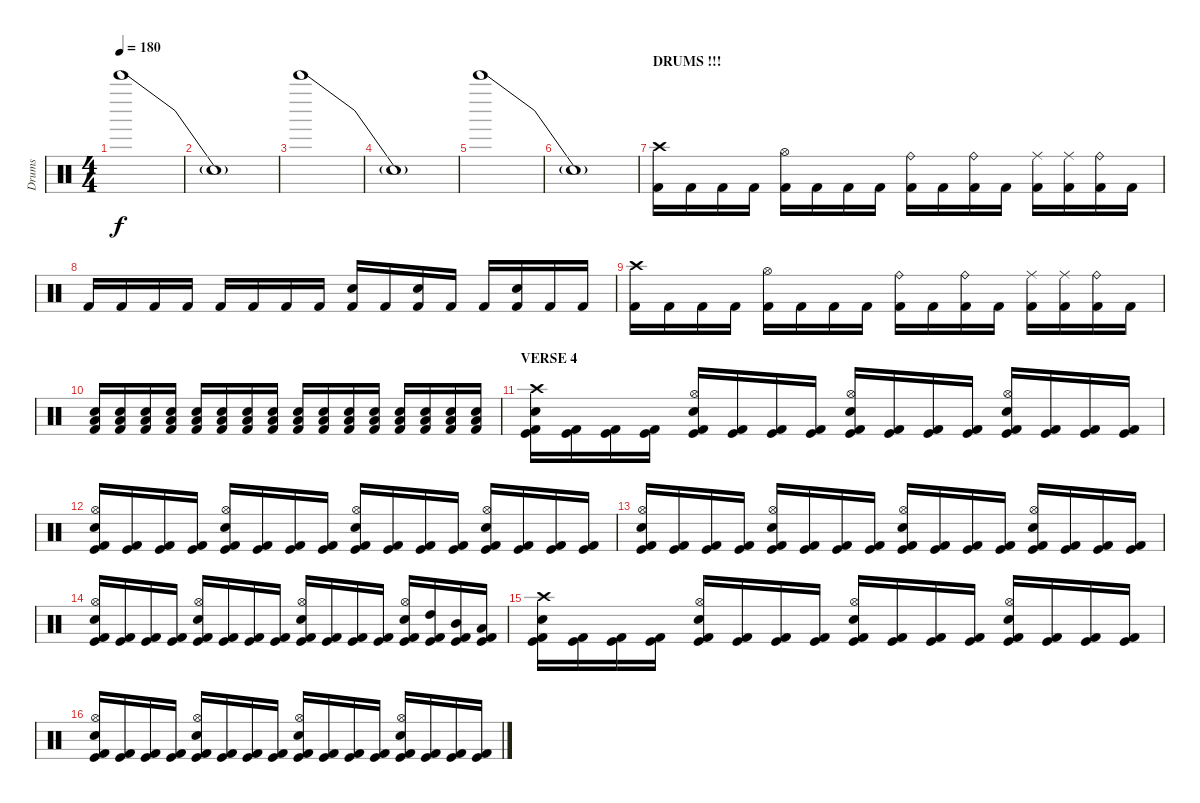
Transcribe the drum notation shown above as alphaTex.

\track ("Drums" "Drums") {instrument percussion}
\staff {score}
\articulation defaults
\ts (4 4)
\tempo 180
\clef neutral
\ks c "Bell Tree (hit)"{be (bend 0 0 60 12)}.1{dy f}
|
"Snare (hit)"{t}.1 |
"Bell Tree (hit)"{be (bend 0 0 60 12)}.1 |
"Snare (hit)"{t}.1 |
"Bell Tree (hit)"{be (bend 0 0 60 12)}.1 |
"Snare (hit)"{t}.1 |
\section ("" "DRUMS !!!")
("Crash high (hit)" "Kick (hit) 2").16 "Kick (hit) 2".16 "Kick (hit) 2".16 "Kick (hit) 2".16 ("Hi-Hat (open)" "Kick (hit) 2").16 "Kick (hit) 2".16 "Kick (hit) 2".16 "Kick (hit) 2".16 ("Ride (bell)" "Kick (hit) 2").16 "Kick (hit) 2".16 ("Ride (bell)" "Kick (hit) 2").16 "Kick (hit) 2".16 ("Ride (middle)" "Kick (hit) 2").16 ("Ride (middle)" "Kick (hit) 2").16 ("Ride (bell)" "Kick (hit) 2").16 "Kick (hit) 2".16 |
"Kick (hit) 2".16 "Kick (hit) 2".16 "Kick (hit) 2".16 "Kick (hit) 2".16 "Kick (hit) 2".16 "Kick (hit) 2".16 "Kick (hit) 2".16 "Kick (hit) 2".16 ("Electric Snare (hit)" "Kick (hit) 2").16 "Kick (hit) 2".16 ("Electric Snare (hit)" "Kick (hit) 2").16 "Kick (hit) 2".16 "Kick (hit) 2".16 ("Electric Snare (hit)" "Kick (hit) 2").16 "Kick (hit) 2".16 "Kick (hit) 2".16 |
("Crash high (hit)" "Kick (hit) 2").16 "Kick (hit) 2".16 "Kick (hit) 2".16 "Kick (hit) 2".16 ("Hi-Hat (open)" "Kick (hit) 2").16 "Kick (hit) 2".16 "Kick (hit) 2".16 "Kick (hit) 2".16 ("Ride (bell)" "Kick (hit) 2").16 "Kick (hit) 2".16 ("Ride (bell)" "Kick (hit) 2").16 "Kick (hit) 2".16 ("Ride (middle)" "Kick (hit) 2").16 ("Ride (middle)" "Kick (hit) 2").16 ("Ride (bell)" "Kick (hit) 2").16 "Kick (hit) 2".16 |
("Low Floor Tom (hit)" "Electric Snare (hit)" "Kick (hit) 2").16 ("Low Floor Tom (hit)" "Electric Snare (hit)" "Kick (hit) 2").16 ("Low Floor Tom (hit)" "Electric Snare (hit)" "Kick (hit) 2").16 ("Low Floor Tom (hit)" "Electric Snare (hit)" "Kick (hit) 2").16 ("Low Floor Tom (hit)" "Electric Snare (hit)" "Kick (hit) 2").16 ("Low Floor Tom (hit)" "Electric Snare (hit)" "Kick (hit) 2").16 ("Low Floor Tom (hit)" "Electric Snare (hit)" "Kick (hit) 2").16 ("Low Floor Tom (hit)" "Electric Snare (hit)" "Kick (hit) 2").16 ("Low Floor Tom (hit)" "Electric Snare (hit)" "Kick (hit) 2").16 ("Low Floor Tom (hit)" "Electric Snare (hit)" "Kick (hit) 2").16 ("Low Floor Tom (hit)" "Electric Snare (hit)" "Kick (hit) 2").16 ("Low Floor Tom (hit)" "Electric Snare (hit)" "Kick (hit) 2").16 ("Low Floor Tom (hit)" "Electric Snare (hit)" "Kick (hit) 2").16 ("Low Floor Tom (hit)" "Electric Snare (hit)" "Kick (hit) 2").16 ("Low Floor Tom (hit)" "Electric Snare (hit)" "Kick (hit) 2").16 ("Low Floor Tom (hit)" "Electric Snare (hit)" "Kick (hit) 2").16 |
\section ("" "VERSE 4")
("Crash high (hit)" "Electric Snare (hit)" "Kick (hit)" "Kick (hit) 2").16 ("Kick (hit)" "Kick (hit) 2").16 ("Kick (hit)" "Kick (hit) 2").16 ("Kick (hit)" "Kick (hit) 2").16 ("Hi-Hat (open)" "Electric Snare (hit)" "Kick (hit)" "Kick (hit) 2").16 ("Kick (hit)" "Kick (hit) 2").16 ("Kick (hit)" "Kick (hit) 2").16 ("Kick (hit)" "Kick (hit) 2").16 ("Hi-Hat (open)" "Electric Snare (hit)" "Kick (hit)" "Kick (hit) 2").16 ("Kick (hit)" "Kick (hit) 2").16 ("Kick (hit)" "Kick (hit) 2").16 ("Kick (hit)" "Kick (hit) 2").16 ("Hi-Hat (open)" "Electric Snare (hit)" "Kick (hit)" "Kick (hit) 2").16 ("Kick (hit)" "Kick (hit) 2").16 ("Kick (hit)" "Kick (hit) 2").16 ("Kick (hit)" "Kick (hit) 2").16 |
("Hi-Hat (open)" "Electric Snare (hit)" "Kick (hit)" "Kick (hit) 2").16 ("Kick (hit)" "Kick (hit) 2").16 ("Kick (hit)" "Kick (hit) 2").16 ("Kick (hit)" "Kick (hit) 2").16 ("Hi-Hat (open)" "Electric Snare (hit)" "Kick (hit)" "Kick (hit) 2").16 ("Kick (hit)" "Kick (hit) 2").16 ("Kick (hit)" "Kick (hit) 2").16 ("Kick (hit)" "Kick (hit) 2").16 ("Hi-Hat (open)" "Electric Snare (hit)" "Kick (hit)" "Kick (hit) 2").16 ("Kick (hit)" "Kick (hit) 2").16 ("Kick (hit)" "Kick (hit) 2").16 ("Kick (hit)" "Kick (hit) 2").16 ("Hi-Hat (open)" "Electric Snare (hit)" "Kick (hit)" "Kick (hit) 2").16 ("Kick (hit)" "Kick (hit) 2").16 ("Kick (hit)" "Kick (hit) 2").16 ("Kick (hit)" "Kick (hit) 2").16 |
("Hi-Hat (open)" "Electric Snare (hit)" "Kick (hit)" "Kick (hit) 2").16 ("Kick (hit)" "Kick (hit) 2").16 ("Kick (hit)" "Kick (hit) 2").16 ("Kick (hit)" "Kick (hit) 2").16 ("Hi-Hat (open)" "Electric Snare (hit)" "Kick (hit)" "Kick (hit) 2").16 ("Kick (hit)" "Kick (hit) 2").16 ("Kick (hit)" "Kick (hit) 2").16 ("Kick (hit)" "Kick (hit) 2").16 ("Hi-Hat (open)" "Electric Snare (hit)" "Kick (hit)" "Kick (hit) 2").16 ("Kick (hit)" "Kick (hit) 2").16 ("Kick (hit)" "Kick (hit) 2").16 ("Kick (hit)" "Kick (hit) 2").16 ("Hi-Hat (open)" "Electric Snare (hit)" "Kick (hit)" "Kick (hit) 2").16 ("Kick (hit)" "Kick (hit) 2").16 ("Kick (hit)" "Kick (hit) 2").16 ("Kick (hit)" "Kick (hit) 2").16 |
("Hi-Hat (open)" "Electric Snare (hit)" "Kick (hit)" "Kick (hit) 2").16 ("Kick (hit)" "Kick (hit) 2").16 ("Kick (hit)" "Kick (hit) 2").16 ("Kick (hit)" "Kick (hit) 2").16 ("Hi-Hat (open)" "Electric Snare (hit)" "Kick (hit)" "Kick (hit) 2").16 ("Kick (hit)" "Kick (hit) 2").16 ("Kick (hit)" "Kick (hit) 2").16 ("Kick (hit)" "Kick (hit) 2").16 ("Hi-Hat (open)" "Electric Snare (hit)" "Kick (hit)" "Kick (hit) 2").16 ("Kick (hit)" "Kick (hit) 2").16 ("Kick (hit)" "Kick (hit) 2").16 ("Kick (hit)" "Kick (hit) 2").16 ("Hi-Hat (open)" "Electric Snare (hit)" "Kick (hit)" "Kick (hit) 2").16 ("High Tom (hit)" "Kick (hit)" "Kick (hit) 2").16 ("Mid Tom (hit)" "Kick (hit)" "Kick (hit) 2").16 ("Low Tom (hit)" "Kick (hit)" "Kick (hit) 2").16 |
("Crash high (hit)" "Electric Snare (hit)" "Kick (hit)" "Kick (hit) 2").16 ("Kick (hit)" "Kick (hit) 2").16 ("Kick (hit)" "Kick (hit) 2").16 ("Kick (hit)" "Kick (hit) 2").16 ("Hi-Hat (open)" "Electric Snare (hit)" "Kick (hit)" "Kick (hit) 2").16 ("Kick (hit)" "Kick (hit) 2").16 ("Kick (hit)" "Kick (hit) 2").16 ("Kick (hit)" "Kick (hit) 2").16 ("Hi-Hat (open)" "Electric Snare (hit)" "Kick (hit)" "Kick (hit) 2").16 ("Kick (hit)" "Kick (hit) 2").16 ("Kick (hit)" "Kick (hit) 2").16 ("Kick (hit)" "Kick (hit) 2").16 ("Hi-Hat (open)" "Electric Snare (hit)" "Kick (hit)" "Kick (hit) 2").16 ("Kick (hit)" "Kick (hit) 2").16 ("Kick (hit)" "Kick (hit) 2").16 ("Kick (hit)" "Kick (hit) 2").16 |
("Hi-Hat (open)" "Electric Snare (hit)" "Kick (hit)" "Kick (hit) 2").16 ("Kick (hit)" "Kick (hit) 2").16 ("Kick (hit)" "Kick (hit) 2").16 ("Kick (hit)" "Kick (hit) 2").16 ("Hi-Hat (open)" "Electric Snare (hit)" "Kick (hit)" "Kick (hit) 2").16 ("Kick (hit)" "Kick (hit) 2").16 ("Kick (hit)" "Kick (hit) 2").16 ("Kick (hit)" "Kick (hit) 2").16 ("Hi-Hat (open)" "Electric Snare (hit)" "Kick (hit)" "Kick (hit) 2").16 ("Kick (hit)" "Kick (hit) 2").16 ("Kick (hit)" "Kick (hit) 2").16 ("Kick (hit)" "Kick (hit) 2").16 ("Hi-Hat (open)" "Electric Snare (hit)" "Kick (hit)" "Kick (hit) 2").16 ("Kick (hit)" "Kick (hit) 2").16 ("Kick (hit)" "Kick (hit) 2").16 ("Kick (hit)" "Kick (hit) 2").16
